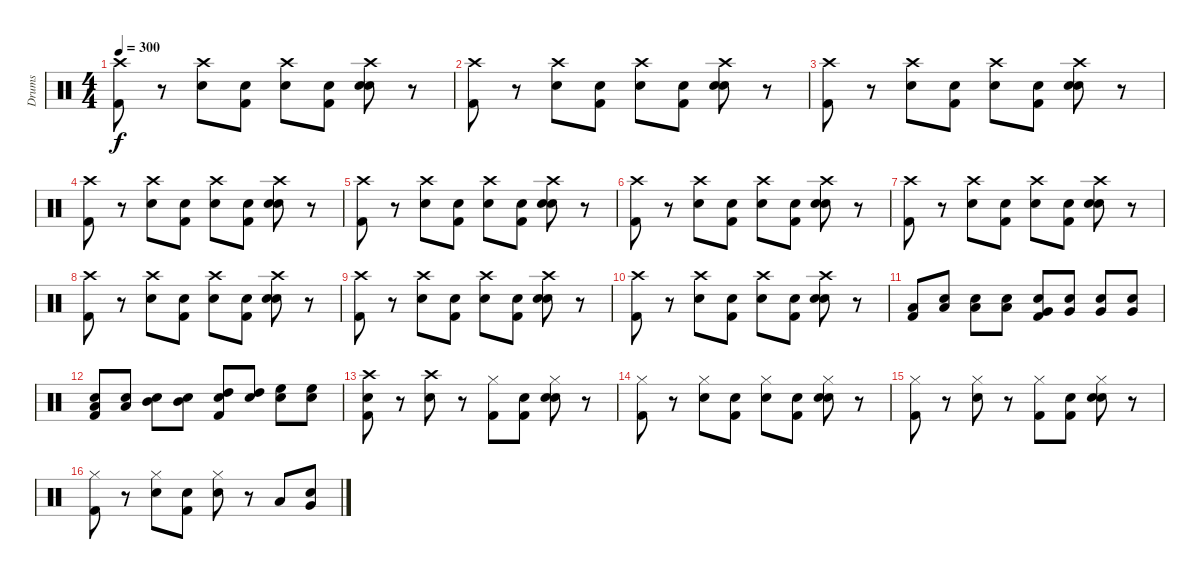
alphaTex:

\track ("Drums" "Drums") {instrument percussion}
\staff {score}
\articulation defaults
\ts (4 4)
\tempo 300
\clef neutral
\ks c
("Crash high (hit)" "Kick (hit) 2").8{dy f} r.8 ("Crash high (hit)" "Electric Snare (hit)").8 ("Snare (hit)" "Kick (hit) 2").8 ("Snare (hit)" "Crash high (hit)").8 ("Snare (hit)" "Kick (hit) 2").8 ("Snare (hit)" "Crash high (hit)" "Electric Snare (hit)").8 r.8 |
("Crash high (hit)" "Kick (hit) 2").8 r.8 ("Crash high (hit)" "Electric Snare (hit)").8 ("Snare (hit)" "Kick (hit) 2").8 ("Snare (hit)" "Crash high (hit)").8 ("Snare (hit)" "Kick (hit) 2").8 ("Snare (hit)" "Crash high (hit)" "Electric Snare (hit)").8 r.8 |
("Crash high (hit)" "Kick (hit) 2").8 r.8 ("Crash high (hit)" "Electric Snare (hit)").8 ("Snare (hit)" "Kick (hit) 2").8 ("Snare (hit)" "Crash high (hit)").8 ("Snare (hit)" "Kick (hit) 2").8 ("Snare (hit)" "Crash high (hit)" "Electric Snare (hit)").8 r.8 |
("Crash high (hit)" "Kick (hit) 2").8 r.8 ("Crash high (hit)" "Electric Snare (hit)").8 ("Snare (hit)" "Kick (hit) 2").8 ("Snare (hit)" "Crash high (hit)").8 ("Snare (hit)" "Kick (hit) 2").8 ("Snare (hit)" "Crash high (hit)" "Electric Snare (hit)").8 r.8 |
("Crash high (hit)" "Kick (hit) 2").8 r.8 ("Crash high (hit)" "Electric Snare (hit)").8 ("Snare (hit)" "Kick (hit) 2").8 ("Snare (hit)" "Crash high (hit)").8 ("Snare (hit)" "Kick (hit) 2").8 ("Snare (hit)" "Crash high (hit)" "Electric Snare (hit)").8 r.8 |
("Crash high (hit)" "Kick (hit) 2").8 r.8 ("Crash high (hit)" "Electric Snare (hit)").8 ("Snare (hit)" "Kick (hit) 2").8 ("Snare (hit)" "Crash high (hit)").8 ("Snare (hit)" "Kick (hit) 2").8 ("Snare (hit)" "Electric Snare (hit)" "Crash high (hit)").8 r.8 |
("Crash high (hit)" "Kick (hit) 2").8 r.8 ("Crash high (hit)" "Electric Snare (hit)").8 ("Snare (hit)" "Kick (hit) 2").8 ("Snare (hit)" "Crash high (hit)").8 ("Snare (hit)" "Kick (hit) 2").8 ("Snare (hit)" "Crash high (hit)" "Electric Snare (hit)").8 r.8 |
("Crash high (hit)" "Kick (hit) 2").8 r.8 ("Crash high (hit)" "Electric Snare (hit)").8 ("Snare (hit)" "Kick (hit) 2").8 ("Snare (hit)" "Crash high (hit)").8 ("Snare (hit)" "Kick (hit) 2").8 ("Snare (hit)" "Electric Snare (hit)" "Crash high (hit)").8 r.8 |
("Crash high (hit)" "Kick (hit) 2").8 r.8 ("Crash high (hit)" "Electric Snare (hit)").8 ("Snare (hit)" "Kick (hit) 2").8 ("Snare (hit)" "Crash high (hit)").8 ("Snare (hit)" "Kick (hit) 2").8 ("Snare (hit)" "Crash high (hit)" "Electric Snare (hit)").8 r.8 |
("Crash high (hit)" "Kick (hit) 2").8 r.8 ("Crash high (hit)" "Electric Snare (hit)").8 ("Snare (hit)" "Kick (hit) 2").8 ("Snare (hit)" "Crash high (hit)").8 ("Snare (hit)" "Kick (hit) 2").8 ("Snare (hit)" "Electric Snare (hit)" "Crash high (hit)").8 r.8 |
("Kick (hit) 2" "Low Floor Tom (hit)").8 ("Snare (hit)" "Low Floor Tom (hit)").8 ("Snare (hit)" "Low Floor Tom (hit)").8 ("Snare (hit)" "Low Floor Tom (hit)").8 ("Snare (hit)" "Kick (hit) 2" "Very Low Tom (hit)").8 ("Snare (hit)" "Very Low Tom (hit)").8 ("Snare (hit)" "Very Low Tom (hit)").8 ("Snare (hit)" "Very Low Tom (hit)").8 |
("Snare (hit)" "Kick (hit) 2" "Low Tom (hit)").8 ("Snare (hit)" "Low Tom (hit)").8 ("Snare (hit)" "Mid Tom (hit)").8 ("Snare (hit)" "Mid Tom (hit)").8 ("Snare (hit)" "Kick (hit) 2" "High Tom (hit)").8 ("Snare (hit)" "High Tom (hit)").8 ("Snare (hit)" "High Floor Tom (hit)").8 ("Snare (hit)" "High Floor Tom (hit)").8 |
("Snare (hit)" "Kick (hit) 2" "Crash high (hit)").8 r.8 ("Crash high (hit)" "Electric Snare (hit)").8 r.8 ("Kick (hit) 2" "Hi-Hat (closed)").8 ("Snare (hit)" "Kick (hit) 2").8 ("Snare (hit)" "Hi-Hat (closed)" "Electric Snare (hit)").8 r.8 |
("Hi-Hat (closed)" "Kick (hit) 2").8 r.8 ("Hi-Hat (closed)" "Electric Snare (hit)").8 ("Snare (hit)" "Kick (hit) 2").8 ("Snare (hit)" "Hi-Hat (closed)").8 ("Snare (hit)" "Kick (hit) 2").8 ("Snare (hit)" "Hi-Hat (closed)" "Electric Snare (hit)").8 r.8 |
("Kick (hit) 2" "Hi-Hat (closed)").8 r.8 ("Electric Snare (hit)" "Hi-Hat (closed)").8 r.8 ("Kick (hit) 2" "Hi-Hat (closed)").8 ("Snare (hit)" "Kick (hit) 2").8 ("Snare (hit)" "Electric Snare (hit)" "Hi-Hat (closed)").8 r.8 |
("Kick (hit) 2" "Hi-Hat (closed)").8 r.8 ("Electric Snare (hit)" "Hi-Hat (closed)").8 ("Snare (hit)" "Kick (hit) 2").8 ("Snare (hit)" "Hi-Hat (closed)").8 r.8 "Low Floor Tom (hit)".8 ("Snare (hit)" "Very Low Tom (hit)").8
